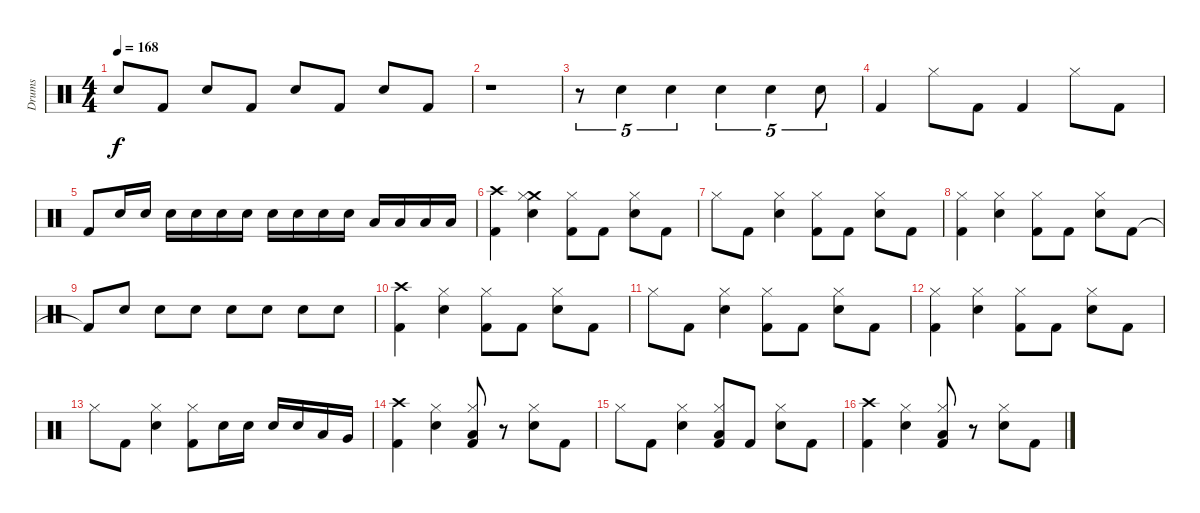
\track ("Drums" "Drums") {instrument percussion}
\staff {score}
\articulation defaults
\ts (4 4)
\tempo 168
\clef neutral
\ks c "Electric Snare (hit)".8{dy f} "Kick (hit) 2".8 "Electric Snare (hit)".8 "Kick (hit) 2".8 "Electric Snare (hit)".8 "Kick (hit) 2".8 "Electric Snare (hit)".8 "Kick (hit) 2".8
|
r.1 |
r.8{tu (5 4)} "Electric Snare (hit)".4{tu (5 4)} "Electric Snare (hit)".4{tu (5 4)} "Electric Snare (hit)".4{tu (5 4)} "Electric Snare (hit)".4{tu (5 4)} "Electric Snare (hit)".8{tu (5 4)} |
"Kick (hit) 2".4 "Hi-Hat (closed)".8 "Kick (hit) 2".8 "Kick (hit) 2".4 "Hi-Hat (closed)".8 "Kick (hit) 2".8 |
"Kick (hit) 2".8 "Electric Snare (hit)".16 "Electric Snare (hit)".16 "Electric Snare (hit)".16 "Electric Snare (hit)".16 "Electric Snare (hit)".16 "Electric Snare (hit)".16 "Electric Snare (hit)".16 "Electric Snare (hit)".16 "Electric Snare (hit)".16 "Electric Snare (hit)".16 "Low Tom (hit)".16 "Low Tom (hit)".16 "Low Tom (hit)".16 "Low Tom (hit)".16 |
("Crash high (hit)" "Kick (hit) 2").4 ("Crash medium (hit)" "Hi-Hat (closed)" "Electric Snare (hit)").4 ("Hi-Hat (closed)" "Kick (hit) 2").8 "Kick (hit) 2".8 ("Hi-Hat (closed)" "Electric Snare (hit)").8 "Kick (hit) 2".8 |
"Hi-Hat (closed)".8 "Kick (hit) 2".8 ("Hi-Hat (closed)" "Electric Snare (hit)").4 ("Hi-Hat (closed)" "Kick (hit) 2").8 "Kick (hit) 2".8 ("Hi-Hat (closed)" "Electric Snare (hit)").8 "Kick (hit) 2".8 |
("Hi-Hat (closed)" "Kick (hit) 2").4 ("Hi-Hat (closed)" "Electric Snare (hit)").4 ("Hi-Hat (closed)" "Kick (hit) 2").8 "Kick (hit) 2".8 ("Hi-Hat (closed)" "Electric Snare (hit)").8 "Kick (hit) 2".8 |
"Kick (hit) 2"{t}.8 "Electric Snare (hit)".8 "Electric Snare (hit)".8 "Electric Snare (hit)".8 "Electric Snare (hit)".8 "Electric Snare (hit)".8 "Electric Snare (hit)".8 "Electric Snare (hit)".8 |
("Crash high (hit)" "Kick (hit) 2").4 ("Hi-Hat (closed)" "Electric Snare (hit)").4 ("Hi-Hat (closed)" "Kick (hit) 2").8 "Kick (hit) 2".8 ("Hi-Hat (closed)" "Electric Snare (hit)").8 "Kick (hit) 2".8 |
"Hi-Hat (closed)".8 "Kick (hit) 2".8 ("Hi-Hat (closed)" "Electric Snare (hit)").4 ("Hi-Hat (closed)" "Kick (hit) 2").8 "Kick (hit) 2".8 ("Hi-Hat (closed)" "Electric Snare (hit)").8 "Kick (hit) 2".8 |
("Hi-Hat (closed)" "Kick (hit) 2").4 ("Hi-Hat (closed)" "Electric Snare (hit)").4 ("Hi-Hat (closed)" "Kick (hit) 2").8 "Kick (hit) 2".8 ("Hi-Hat (closed)" "Electric Snare (hit)").8 "Kick (hit) 2".8 |
"Hi-Hat (closed)".8 "Kick (hit) 2".8 ("Hi-Hat (closed)" "Electric Snare (hit)").4 ("Hi-Hat (closed)" "Kick (hit) 2").8 "Electric Snare (hit)".16 "Electric Snare (hit)".16 "Electric Snare (hit)".16 "Electric Snare (hit)".16 "Low Tom (hit)".16 "Very Low Tom (hit)".16 |
("Crash high (hit)" "Kick (hit) 2").4 ("Hi-Hat (closed)" "Electric Snare (hit)").4 ("Hi-Hat (closed)" "Low Tom (hit)" "Kick (hit) 2").8 r.8 ("Hi-Hat (closed)" "Electric Snare (hit)").8 "Kick (hit) 2".8 |
"Hi-Hat (closed)".8 "Kick (hit) 2".8 ("Hi-Hat (closed)" "Electric Snare (hit)").4 ("Hi-Hat (closed)" "Low Tom (hit)" "Kick (hit) 2").8 "Kick (hit) 2".8 ("Hi-Hat (closed)" "Electric Snare (hit)").8 "Kick (hit) 2".8 |
("Crash high (hit)" "Kick (hit) 2").4 ("Hi-Hat (closed)" "Electric Snare (hit)").4 ("Hi-Hat (closed)" "Low Tom (hit)" "Kick (hit) 2").8 r.8 ("Hi-Hat (closed)" "Electric Snare (hit)").8 "Kick (hit) 2".8
